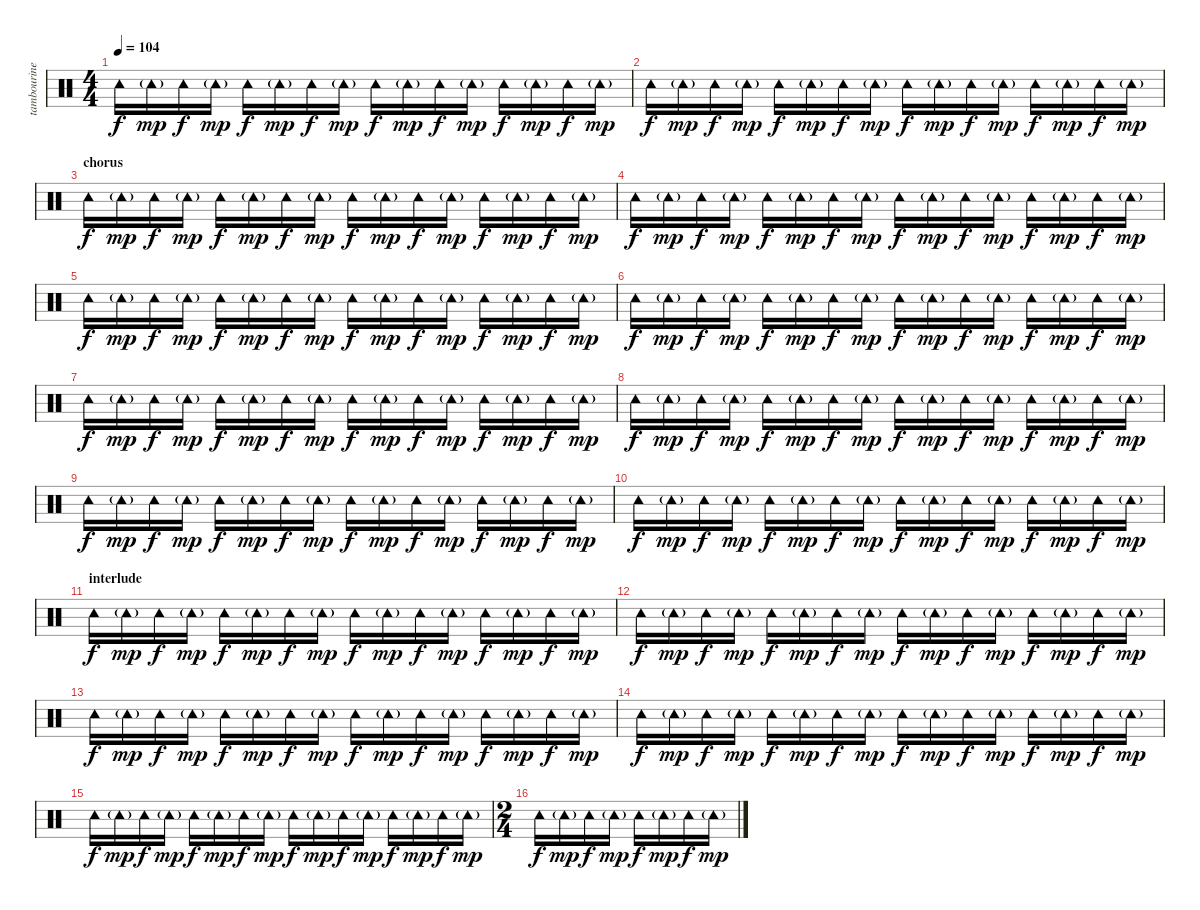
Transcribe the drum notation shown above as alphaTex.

\track ("tambourine" "tambourine") {instrument percussion}
\staff {score}
\articulation defaults
\ts (4 4)
\tempo 104
\clef neutral
\ks c "Tambourine (hit)".16{dy f} "Tambourine (hit)"{g}.16{dy mp} "Tambourine (hit)".16{dy f} "Tambourine (hit)"{g}.16{dy mp} "Tambourine (hit)".16{dy f} "Tambourine (hit)"{g}.16{dy mp} "Tambourine (hit)".16{dy f} "Tambourine (hit)"{g}.16{dy mp} "Tambourine (hit)".16{dy f} "Tambourine (hit)"{g}.16{dy mp} "Tambourine (hit)".16{dy f} "Tambourine (hit)"{g}.16{dy mp} "Tambourine (hit)".16{dy f} "Tambourine (hit)"{g}.16{dy mp} "Tambourine (hit)".16{dy f} "Tambourine (hit)"{g}.16{dy mp}
|
"Tambourine (hit)".16{dy f} "Tambourine (hit)"{g}.16{dy mp} "Tambourine (hit)".16{dy f} "Tambourine (hit)"{g}.16{dy mp} "Tambourine (hit)".16{dy f} "Tambourine (hit)"{g}.16{dy mp} "Tambourine (hit)".16{dy f} "Tambourine (hit)"{g}.16{dy mp} "Tambourine (hit)".16{dy f} "Tambourine (hit)"{g}.16{dy mp} "Tambourine (hit)".16{dy f} "Tambourine (hit)"{g}.16{dy mp} "Tambourine (hit)".16{dy f} "Tambourine (hit)"{g}.16{dy mp} "Tambourine (hit)".16{dy f} "Tambourine (hit)"{g}.16{dy mp} |
\section ("" "chorus")
"Tambourine (hit)".16{dy f} "Tambourine (hit)"{g}.16{dy mp} "Tambourine (hit)".16{dy f} "Tambourine (hit)"{g}.16{dy mp} "Tambourine (hit)".16{dy f} "Tambourine (hit)"{g}.16{dy mp} "Tambourine (hit)".16{dy f} "Tambourine (hit)"{g}.16{dy mp} "Tambourine (hit)".16{dy f} "Tambourine (hit)"{g}.16{dy mp} "Tambourine (hit)".16{dy f} "Tambourine (hit)"{g}.16{dy mp} "Tambourine (hit)".16{dy f} "Tambourine (hit)"{g}.16{dy mp} "Tambourine (hit)".16{dy f} "Tambourine (hit)"{g}.16{dy mp} |
"Tambourine (hit)".16{dy f} "Tambourine (hit)"{g}.16{dy mp} "Tambourine (hit)".16{dy f} "Tambourine (hit)"{g}.16{dy mp} "Tambourine (hit)".16{dy f} "Tambourine (hit)"{g}.16{dy mp} "Tambourine (hit)".16{dy f} "Tambourine (hit)"{g}.16{dy mp} "Tambourine (hit)".16{dy f} "Tambourine (hit)"{g}.16{dy mp} "Tambourine (hit)".16{dy f} "Tambourine (hit)"{g}.16{dy mp} "Tambourine (hit)".16{dy f} "Tambourine (hit)"{g}.16{dy mp} "Tambourine (hit)".16{dy f} "Tambourine (hit)"{g}.16{dy mp} |
"Tambourine (hit)".16{dy f} "Tambourine (hit)"{g}.16{dy mp} "Tambourine (hit)".16{dy f} "Tambourine (hit)"{g}.16{dy mp} "Tambourine (hit)".16{dy f} "Tambourine (hit)"{g}.16{dy mp} "Tambourine (hit)".16{dy f} "Tambourine (hit)"{g}.16{dy mp} "Tambourine (hit)".16{dy f} "Tambourine (hit)"{g}.16{dy mp} "Tambourine (hit)".16{dy f} "Tambourine (hit)"{g}.16{dy mp} "Tambourine (hit)".16{dy f} "Tambourine (hit)"{g}.16{dy mp} "Tambourine (hit)".16{dy f} "Tambourine (hit)"{g}.16{dy mp} |
"Tambourine (hit)".16{dy f} "Tambourine (hit)"{g}.16{dy mp} "Tambourine (hit)".16{dy f} "Tambourine (hit)"{g}.16{dy mp} "Tambourine (hit)".16{dy f} "Tambourine (hit)"{g}.16{dy mp} "Tambourine (hit)".16{dy f} "Tambourine (hit)"{g}.16{dy mp} "Tambourine (hit)".16{dy f} "Tambourine (hit)"{g}.16{dy mp} "Tambourine (hit)".16{dy f} "Tambourine (hit)"{g}.16{dy mp} "Tambourine (hit)".16{dy f} "Tambourine (hit)"{g}.16{dy mp} "Tambourine (hit)".16{dy f} "Tambourine (hit)"{g}.16{dy mp} |
"Tambourine (hit)".16{dy f} "Tambourine (hit)"{g}.16{dy mp} "Tambourine (hit)".16{dy f} "Tambourine (hit)"{g}.16{dy mp} "Tambourine (hit)".16{dy f} "Tambourine (hit)"{g}.16{dy mp} "Tambourine (hit)".16{dy f} "Tambourine (hit)"{g}.16{dy mp} "Tambourine (hit)".16{dy f} "Tambourine (hit)"{g}.16{dy mp} "Tambourine (hit)".16{dy f} "Tambourine (hit)"{g}.16{dy mp} "Tambourine (hit)".16{dy f} "Tambourine (hit)"{g}.16{dy mp} "Tambourine (hit)".16{dy f} "Tambourine (hit)"{g}.16{dy mp} |
"Tambourine (hit)".16{dy f} "Tambourine (hit)"{g}.16{dy mp} "Tambourine (hit)".16{dy f} "Tambourine (hit)"{g}.16{dy mp} "Tambourine (hit)".16{dy f} "Tambourine (hit)"{g}.16{dy mp} "Tambourine (hit)".16{dy f} "Tambourine (hit)"{g}.16{dy mp} "Tambourine (hit)".16{dy f} "Tambourine (hit)"{g}.16{dy mp} "Tambourine (hit)".16{dy f} "Tambourine (hit)"{g}.16{dy mp} "Tambourine (hit)".16{dy f} "Tambourine (hit)"{g}.16{dy mp} "Tambourine (hit)".16{dy f} "Tambourine (hit)"{g}.16{dy mp} |
"Tambourine (hit)".16{dy f} "Tambourine (hit)"{g}.16{dy mp} "Tambourine (hit)".16{dy f} "Tambourine (hit)"{g}.16{dy mp} "Tambourine (hit)".16{dy f} "Tambourine (hit)"{g}.16{dy mp} "Tambourine (hit)".16{dy f} "Tambourine (hit)"{g}.16{dy mp} "Tambourine (hit)".16{dy f} "Tambourine (hit)"{g}.16{dy mp} "Tambourine (hit)".16{dy f} "Tambourine (hit)"{g}.16{dy mp} "Tambourine (hit)".16{dy f} "Tambourine (hit)"{g}.16{dy mp} "Tambourine (hit)".16{dy f} "Tambourine (hit)"{g}.16{dy mp} |
"Tambourine (hit)".16{dy f} "Tambourine (hit)"{g}.16{dy mp} "Tambourine (hit)".16{dy f} "Tambourine (hit)"{g}.16{dy mp} "Tambourine (hit)".16{dy f} "Tambourine (hit)"{g}.16{dy mp} "Tambourine (hit)".16{dy f} "Tambourine (hit)"{g}.16{dy mp} "Tambourine (hit)".16{dy f} "Tambourine (hit)"{g}.16{dy mp} "Tambourine (hit)".16{dy f} "Tambourine (hit)"{g}.16{dy mp} "Tambourine (hit)".16{dy f} "Tambourine (hit)"{g}.16{dy mp} "Tambourine (hit)".16{dy f} "Tambourine (hit)"{g}.16{dy mp} |
\section ("" "interlude")
"Tambourine (hit)".16{dy f} "Tambourine (hit)"{g}.16{dy mp} "Tambourine (hit)".16{dy f} "Tambourine (hit)"{g}.16{dy mp} "Tambourine (hit)".16{dy f} "Tambourine (hit)"{g}.16{dy mp} "Tambourine (hit)".16{dy f} "Tambourine (hit)"{g}.16{dy mp} "Tambourine (hit)".16{dy f} "Tambourine (hit)"{g}.16{dy mp} "Tambourine (hit)".16{dy f} "Tambourine (hit)"{g}.16{dy mp} "Tambourine (hit)".16{dy f} "Tambourine (hit)"{g}.16{dy mp} "Tambourine (hit)".16{dy f} "Tambourine (hit)"{g}.16{dy mp} |
"Tambourine (hit)".16{dy f} "Tambourine (hit)"{g}.16{dy mp} "Tambourine (hit)".16{dy f} "Tambourine (hit)"{g}.16{dy mp} "Tambourine (hit)".16{dy f} "Tambourine (hit)"{g}.16{dy mp} "Tambourine (hit)".16{dy f} "Tambourine (hit)"{g}.16{dy mp} "Tambourine (hit)".16{dy f} "Tambourine (hit)"{g}.16{dy mp} "Tambourine (hit)".16{dy f} "Tambourine (hit)"{g}.16{dy mp} "Tambourine (hit)".16{dy f} "Tambourine (hit)"{g}.16{dy mp} "Tambourine (hit)".16{dy f} "Tambourine (hit)"{g}.16{dy mp} |
"Tambourine (hit)".16{dy f} "Tambourine (hit)"{g}.16{dy mp} "Tambourine (hit)".16{dy f} "Tambourine (hit)"{g}.16{dy mp} "Tambourine (hit)".16{dy f} "Tambourine (hit)"{g}.16{dy mp} "Tambourine (hit)".16{dy f} "Tambourine (hit)"{g}.16{dy mp} "Tambourine (hit)".16{dy f} "Tambourine (hit)"{g}.16{dy mp} "Tambourine (hit)".16{dy f} "Tambourine (hit)"{g}.16{dy mp} "Tambourine (hit)".16{dy f} "Tambourine (hit)"{g}.16{dy mp} "Tambourine (hit)".16{dy f} "Tambourine (hit)"{g}.16{dy mp} |
"Tambourine (hit)".16{dy f} "Tambourine (hit)"{g}.16{dy mp} "Tambourine (hit)".16{dy f} "Tambourine (hit)"{g}.16{dy mp} "Tambourine (hit)".16{dy f} "Tambourine (hit)"{g}.16{dy mp} "Tambourine (hit)".16{dy f} "Tambourine (hit)"{g}.16{dy mp} "Tambourine (hit)".16{dy f} "Tambourine (hit)"{g}.16{dy mp} "Tambourine (hit)".16{dy f} "Tambourine (hit)"{g}.16{dy mp} "Tambourine (hit)".16{dy f} "Tambourine (hit)"{g}.16{dy mp} "Tambourine (hit)".16{dy f} "Tambourine (hit)"{g}.16{dy mp} |
"Tambourine (hit)".16{dy f} "Tambourine (hit)"{g}.16{dy mp} "Tambourine (hit)".16{dy f} "Tambourine (hit)"{g}.16{dy mp} "Tambourine (hit)".16{dy f} "Tambourine (hit)"{g}.16{dy mp} "Tambourine (hit)".16{dy f} "Tambourine (hit)"{g}.16{dy mp} "Tambourine (hit)".16{dy f} "Tambourine (hit)"{g}.16{dy mp} "Tambourine (hit)".16{dy f} "Tambourine (hit)"{g}.16{dy mp} "Tambourine (hit)".16{dy f} "Tambourine (hit)"{g}.16{dy mp} "Tambourine (hit)".16{dy f} "Tambourine (hit)"{g}.16{dy mp} |
\ts (2 4)
"Tambourine (hit)".16{dy f} "Tambourine (hit)"{g}.16{dy mp} "Tambourine (hit)".16{dy f} "Tambourine (hit)"{g}.16{dy mp} "Tambourine (hit)".16{dy f} "Tambourine (hit)"{g}.16{dy mp} "Tambourine (hit)".16{dy f} "Tambourine (hit)"{g}.16{dy mp}
